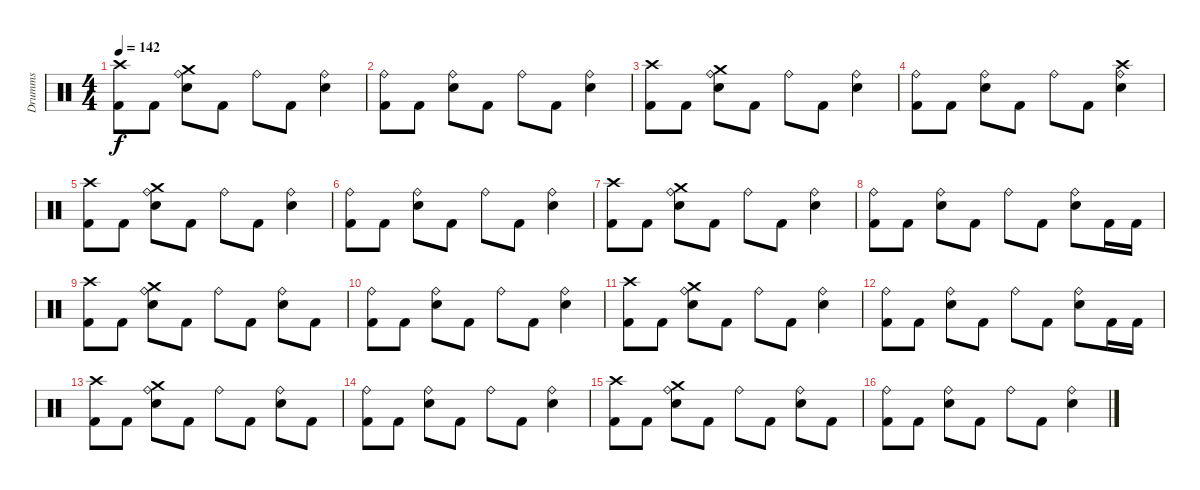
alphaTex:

\track ("Drumms" "Drumms") {instrument percussion}
\staff {score}
\articulation defaults
\ts (4 4)
\section ("" "")
\tempo 142
\clef neutral
\ks c
("Kick (hit) 2" "Crash high (hit)").8{dy f} "Kick (hit) 2".8 ("Electric Snare (hit)" "Crash medium (hit)" "Ride (bell)").8 "Kick (hit) 2".8 "Ride (bell)".8 "Kick (hit) 2".8 ("Electric Snare (hit)" "Ride (bell)").4 |
("Kick (hit) 2" "Ride (bell)").8 "Kick (hit) 2".8 ("Electric Snare (hit)" "Ride (bell)").8 "Kick (hit) 2".8 "Ride (bell)".8 "Kick (hit) 2".8 ("Electric Snare (hit)" "Ride (bell)").4 |
("Kick (hit) 2" "Crash high (hit)").8 "Kick (hit) 2".8 ("Electric Snare (hit)" "Crash medium (hit)" "Ride (bell)").8 "Kick (hit) 2".8 "Ride (bell)".8 "Kick (hit) 2".8 ("Electric Snare (hit)" "Ride (bell)").4 |
("Kick (hit) 2" "Ride (bell)").8 "Kick (hit) 2".8 ("Electric Snare (hit)" "Ride (bell)").8 "Kick (hit) 2".8 "Ride (bell)".8 "Kick (hit) 2".8 ("Electric Snare (hit)" "Ride (bell)" "Crash high (hit)").4 |
("Kick (hit) 2" "Crash high (hit)").8 "Kick (hit) 2".8 ("Electric Snare (hit)" "Crash medium (hit)" "Ride (bell)").8 "Kick (hit) 2".8 "Ride (bell)".8 "Kick (hit) 2".8 ("Electric Snare (hit)" "Ride (bell)").4 |
("Kick (hit) 2" "Ride (bell)").8 "Kick (hit) 2".8 ("Electric Snare (hit)" "Ride (bell)").8 "Kick (hit) 2".8 "Ride (bell)".8 "Kick (hit) 2".8 ("Electric Snare (hit)" "Ride (bell)").4 |
("Kick (hit) 2" "Crash high (hit)").8 "Kick (hit) 2".8 ("Electric Snare (hit)" "Crash medium (hit)" "Ride (bell)").8 "Kick (hit) 2".8 "Ride (bell)".8 "Kick (hit) 2".8 ("Electric Snare (hit)" "Ride (bell)").4 |
("Kick (hit) 2" "Ride (bell)").8 "Kick (hit) 2".8 ("Electric Snare (hit)" "Ride (bell)").8 "Kick (hit) 2".8 "Ride (bell)".8 "Kick (hit) 2".8 ("Electric Snare (hit)" "Ride (bell)").8 "Kick (hit) 2".16 "Kick (hit) 2".16 |
("Kick (hit) 2" "Crash high (hit)").8 "Kick (hit) 2".8 ("Electric Snare (hit)" "Crash medium (hit)" "Ride (bell)").8 "Kick (hit) 2".8 "Ride (bell)".8 "Kick (hit) 2".8 ("Electric Snare (hit)" "Ride (bell)").8 "Kick (hit) 2".8 |
("Kick (hit) 2" "Ride (bell)").8 "Kick (hit) 2".8 ("Electric Snare (hit)" "Ride (bell)").8 "Kick (hit) 2".8 "Ride (bell)".8 "Kick (hit) 2".8 ("Electric Snare (hit)" "Ride (bell)").4 |
("Kick (hit) 2" "Crash high (hit)").8 "Kick (hit) 2".8 ("Electric Snare (hit)" "Crash medium (hit)" "Ride (bell)").8 "Kick (hit) 2".8 "Ride (bell)".8 "Kick (hit) 2".8 ("Electric Snare (hit)" "Ride (bell)").4 |
("Kick (hit) 2" "Ride (bell)").8 "Kick (hit) 2".8 ("Electric Snare (hit)" "Ride (bell)").8 "Kick (hit) 2".8 "Ride (bell)".8 "Kick (hit) 2".8 ("Electric Snare (hit)" "Ride (bell)").8 "Kick (hit) 2".16 "Kick (hit) 2".16 |
("Kick (hit) 2" "Crash high (hit)").8 "Kick (hit) 2".8 ("Electric Snare (hit)" "Crash medium (hit)" "Ride (bell)").8 "Kick (hit) 2".8 "Ride (bell)".8 "Kick (hit) 2".8 ("Electric Snare (hit)" "Ride (bell)").8 "Kick (hit) 2".8 |
("Kick (hit) 2" "Ride (bell)").8 "Kick (hit) 2".8 ("Electric Snare (hit)" "Ride (bell)").8 "Kick (hit) 2".8 "Ride (bell)".8 "Kick (hit) 2".8 ("Electric Snare (hit)" "Ride (bell)").4 |
("Kick (hit) 2" "Crash high (hit)").8 "Kick (hit) 2".8 ("Electric Snare (hit)" "Crash medium (hit)" "Ride (bell)").8 "Kick (hit) 2".8 "Ride (bell)".8 "Kick (hit) 2".8 ("Electric Snare (hit)" "Ride (bell)").8 "Kick (hit) 2".8 |
("Kick (hit) 2" "Ride (bell)").8 "Kick (hit) 2".8 ("Electric Snare (hit)" "Ride (bell)").8 "Kick (hit) 2".8 "Ride (bell)".8 "Kick (hit) 2".8 ("Electric Snare (hit)" "Ride (bell)").4
